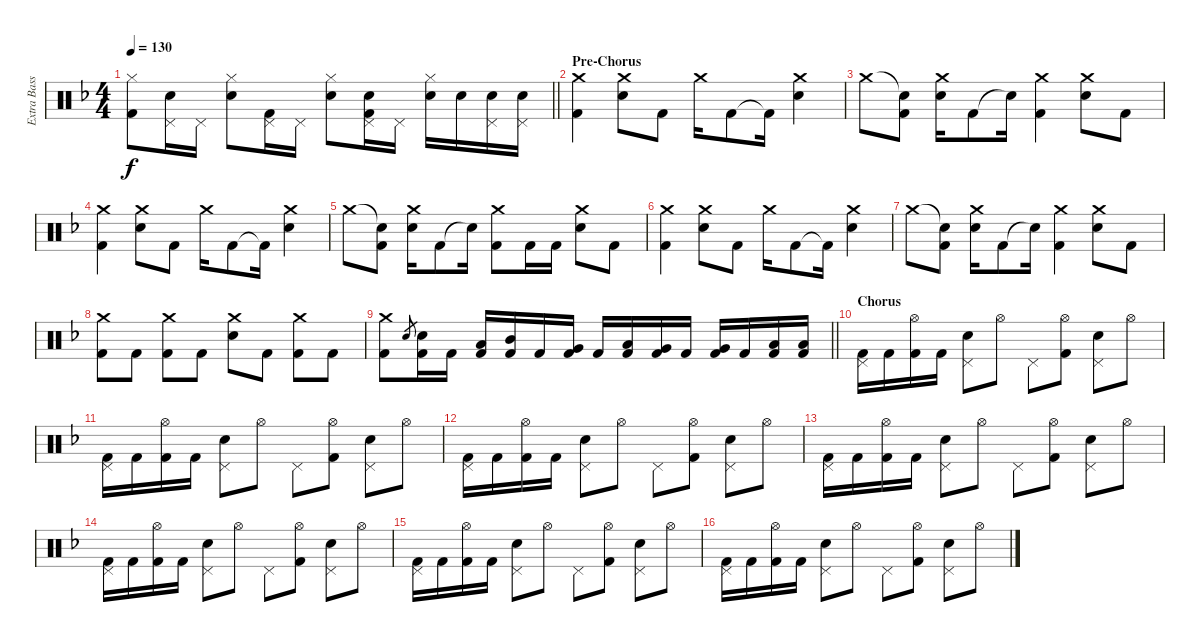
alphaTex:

\track ("Extra BassDrum" "Extra Bass") {instrument percussion}
\staff {score}
\articulation defaults
\ts (4 4)
\tempo 130
\clef neutral
\barLineRight lightlight
\ks f
("Hi-Hat (closed)" "Kick (hit) 2").8{dy f} ("Pedal Hi-Hat (hit)" "Snare (hit) 2").16 "Pedal Hi-Hat (hit)".16 ("Hi-Hat (closed)" "Snare (hit) 2").8 ("Pedal Hi-Hat (hit)" "Kick (hit) 2").16 "Pedal Hi-Hat (hit)".16 ("Hi-Hat (closed)" "Snare (hit) 2").8 ("Pedal Hi-Hat (hit)" "Snare (hit) 2" "Kick (hit) 2").16 "Pedal Hi-Hat (hit)".16 ("Hi-Hat (closed)" "Snare (hit) 2").16 "Snare (hit) 2".16 ("Pedal Hi-Hat (hit)" "Snare (hit) 2").16 ("Pedal Hi-Hat (hit)" "Snare (hit) 2").16 |
\section ("" "Pre-Chorus")
("Crash medium (hit)" "Kick (hit) 2").4 ("Crash medium (hit)" "Snare (hit) 2").8 "Kick (hit) 2".8 "Crash medium (hit)".16 "Kick (hit) 2".8 "Kick (hit) 2"{t}.16 ("Crash medium (hit)" "Snare (hit) 2").4 |
"Crash medium (hit)".8 ("Snare (hit)"{t} "Kick (hit) 2").8 ("Crash medium (hit)" "Snare (hit) 2").16 "Kick (hit) 2".8 "Snare (hit)"{t}.16 ("Crash medium (hit)" "Kick (hit) 2").4 ("Crash medium (hit)" "Snare (hit) 2").8 "Kick (hit) 2".8 |
("Crash medium (hit)" "Kick (hit) 2").4 ("Crash medium (hit)" "Snare (hit) 2").8 "Kick (hit) 2".8 "Crash medium (hit)".16 "Kick (hit) 2".8 "Kick (hit) 2"{t}.16 ("Crash medium (hit)" "Snare (hit) 2").4 |
"Crash medium (hit)".8 ("Snare (hit)"{t} "Kick (hit) 2").8 ("Crash medium (hit)" "Snare (hit) 2").16 "Kick (hit) 2".8 "Snare (hit)"{t}.16 ("Crash medium (hit)" "Kick (hit) 2").8 "Kick (hit) 2".16 "Kick (hit) 2".16 ("Crash medium (hit)" "Snare (hit) 2").8 "Kick (hit) 2".8 |
("Crash medium (hit)" "Kick (hit) 2").4 ("Crash medium (hit)" "Snare (hit) 2").8 "Kick (hit) 2".8 "Crash medium (hit)".16 "Kick (hit) 2".8 "Kick (hit) 2"{t}.16 ("Crash medium (hit)" "Snare (hit) 2").4 |
"Crash medium (hit)".8 ("Snare (hit)"{t} "Kick (hit) 2").8 ("Crash medium (hit)" "Snare (hit) 2").16 "Kick (hit) 2".8 "Snare (hit)"{t}.16 ("Crash medium (hit)" "Kick (hit) 2").4 ("Crash medium (hit)" "Snare (hit) 2").8 "Kick (hit) 2".8 |
("Crash medium (hit)" "Kick (hit) 2").8 "Kick (hit) 2".8 ("Crash medium (hit)" "Kick (hit) 2").8 "Kick (hit) 2".8 ("Crash medium (hit)" "Snare (hit) 2").8 "Kick (hit) 2".8 ("Crash medium (hit)" "Kick (hit) 2").8 "Kick (hit) 2".8 |
\barLineRight lightlight
("Crash medium (hit)" "Kick (hit) 2").8 "Snare (hit) 2".8{gr} ("Snare (hit) 2" "Kick (hit) 2").16 "Kick (hit) 2".16 ("Low Tom (hit)" "Kick (hit) 2").16 ("Mid Tom (hit)" "Kick (hit) 2").16 "Kick (hit) 2".16 ("Very Low Tom (hit)" "Kick (hit) 2").16 "Kick (hit) 2".16 ("Low Floor Tom (hit)" "Kick (hit) 2").16 ("Very Low Tom (hit)" "Kick (hit) 2").16 "Kick (hit) 2".16 ("Very Low Tom (hit)" "Kick (hit) 2").16 "Kick (hit) 2".16 ("Low Floor Tom (hit)" "Kick (hit) 2").16 ("Low Floor Tom (hit)" "Kick (hit) 2").16 |
\section ("" "Chorus")
("Pedal Hi-Hat (hit)" "Kick (hit) 2").16 "Kick (hit) 2".16 ("Hi-Hat (open)" "Kick (hit) 2").16 "Kick (hit) 2".16 ("Pedal Hi-Hat (hit)" "Snare (hit) 2").8 "Hi-Hat (open)".8 "Pedal Hi-Hat (hit)".8 ("Hi-Hat (open)" "Kick (hit) 2").8 ("Pedal Hi-Hat (hit)" "Snare (hit) 2").8 "Hi-Hat (open)".8 |
("Pedal Hi-Hat (hit)" "Kick (hit) 2").16 "Kick (hit) 2".16 ("Hi-Hat (open)" "Kick (hit) 2").16 "Kick (hit) 2".16 ("Pedal Hi-Hat (hit)" "Snare (hit) 2").8 "Hi-Hat (open)".8 "Pedal Hi-Hat (hit)".8 ("Hi-Hat (open)" "Kick (hit) 2").8 ("Pedal Hi-Hat (hit)" "Snare (hit) 2").8 "Hi-Hat (open)".8 |
("Pedal Hi-Hat (hit)" "Kick (hit) 2").16 "Kick (hit) 2".16 ("Hi-Hat (open)" "Kick (hit) 2").16 "Kick (hit) 2".16 ("Pedal Hi-Hat (hit)" "Snare (hit) 2").8 "Hi-Hat (open)".8 "Pedal Hi-Hat (hit)".8 ("Hi-Hat (open)" "Kick (hit) 2").8 ("Pedal Hi-Hat (hit)" "Snare (hit) 2").8 "Hi-Hat (open)".8 |
("Pedal Hi-Hat (hit)" "Kick (hit) 2").16 "Kick (hit) 2".16 ("Hi-Hat (open)" "Kick (hit) 2").16 "Kick (hit) 2".16 ("Pedal Hi-Hat (hit)" "Snare (hit) 2").8 "Hi-Hat (open)".8 "Pedal Hi-Hat (hit)".8 ("Hi-Hat (open)" "Kick (hit) 2").8 ("Pedal Hi-Hat (hit)" "Snare (hit) 2").8 "Hi-Hat (open)".8 |
("Pedal Hi-Hat (hit)" "Kick (hit) 2").16 "Kick (hit) 2".16 ("Hi-Hat (open)" "Kick (hit) 2").16 "Kick (hit) 2".16 ("Pedal Hi-Hat (hit)" "Snare (hit) 2").8 "Hi-Hat (open)".8 "Pedal Hi-Hat (hit)".8 ("Hi-Hat (open)" "Kick (hit) 2").8 ("Pedal Hi-Hat (hit)" "Snare (hit) 2").8 "Hi-Hat (open)".8 |
("Pedal Hi-Hat (hit)" "Kick (hit) 2").16 "Kick (hit) 2".16 ("Hi-Hat (open)" "Kick (hit) 2").16 "Kick (hit) 2".16 ("Pedal Hi-Hat (hit)" "Snare (hit) 2").8 "Hi-Hat (open)".8 "Pedal Hi-Hat (hit)".8 ("Hi-Hat (open)" "Kick (hit) 2").8 ("Pedal Hi-Hat (hit)" "Snare (hit) 2").8 "Hi-Hat (open)".8 |
("Pedal Hi-Hat (hit)" "Kick (hit) 2").16 "Kick (hit) 2".16 ("Hi-Hat (open)" "Kick (hit) 2").16 "Kick (hit) 2".16 ("Pedal Hi-Hat (hit)" "Snare (hit) 2").8 "Hi-Hat (open)".8 "Pedal Hi-Hat (hit)".8 ("Hi-Hat (open)" "Kick (hit) 2").8 ("Pedal Hi-Hat (hit)" "Snare (hit) 2").8 "Hi-Hat (open)".8
